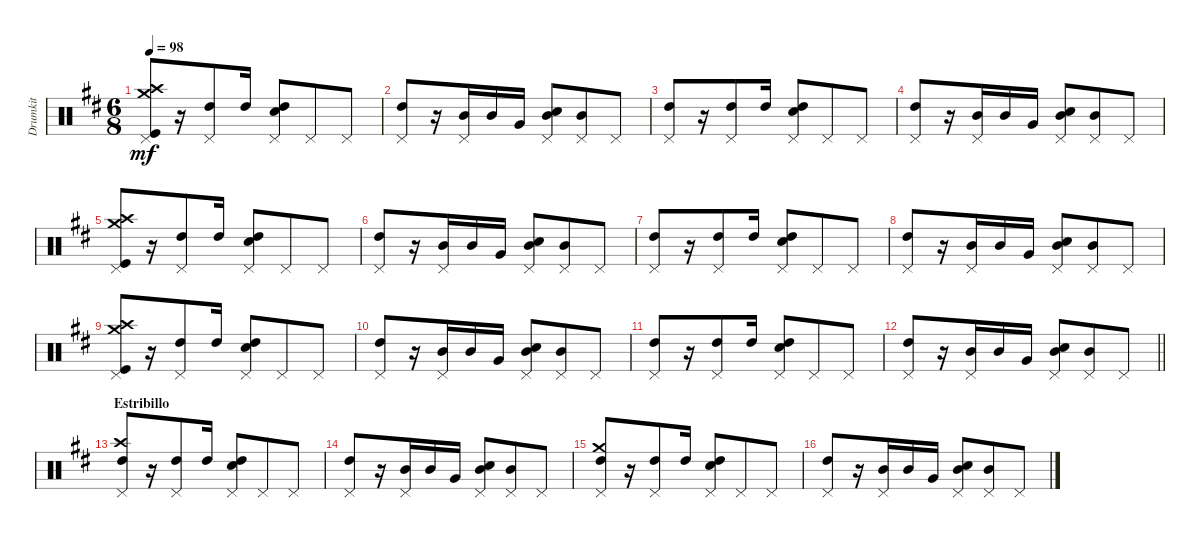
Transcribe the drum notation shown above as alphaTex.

\track ("Drumkit" "Drumkit") {instrument percussion}
\staff {score}
\articulation defaults
\ts (6 8)
\tempo 98
\clef neutral
\ks d
("Pedal Hi-Hat (hit)" "Crash medium (hit)" "Crash high (hit)" "Kick (hit)").8{dy mf} r.16 ("High Tom (hit)" "Pedal Hi-Hat (hit)").8 "High Tom (hit)".16 ("High Tom (hit)" "Snare (hit) 2" "Pedal Hi-Hat (hit)").8 "Pedal Hi-Hat (hit)".8 "Pedal Hi-Hat (hit)".8 |
("High Tom (hit)" "Pedal Hi-Hat (hit)").8 r.16 ("Mid Tom (hit)" "Pedal Hi-Hat (hit)").16 "Mid Tom (hit)".16 "Very Low Tom (hit)".16 ("Mid Tom (hit)" "Snare (hit) 2" "Pedal Hi-Hat (hit)").8 ("Mid Tom (hit)" "Pedal Hi-Hat (hit)").8 "Pedal Hi-Hat (hit)".8 |
("High Tom (hit)" "Pedal Hi-Hat (hit)").8 r.16 ("High Tom (hit)" "Pedal Hi-Hat (hit)").8 "High Tom (hit)".16 ("High Tom (hit)" "Snare (hit) 2" "Pedal Hi-Hat (hit)").8 "Pedal Hi-Hat (hit)".8 "Pedal Hi-Hat (hit)".8 |
("High Tom (hit)" "Pedal Hi-Hat (hit)").8 r.16 ("Mid Tom (hit)" "Pedal Hi-Hat (hit)").16 "Mid Tom (hit)".16 "Very Low Tom (hit)".16 ("Mid Tom (hit)" "Snare (hit) 2" "Pedal Hi-Hat (hit)").8 ("Mid Tom (hit)" "Pedal Hi-Hat (hit)").8 "Pedal Hi-Hat (hit)".8 |
("Pedal Hi-Hat (hit)" "Crash medium (hit)" "Crash high (hit)" "Kick (hit)").8 r.16 ("High Tom (hit)" "Pedal Hi-Hat (hit)").8 "High Tom (hit)".16 ("High Tom (hit)" "Snare (hit) 2" "Pedal Hi-Hat (hit)").8 "Pedal Hi-Hat (hit)".8 "Pedal Hi-Hat (hit)".8 |
("High Tom (hit)" "Pedal Hi-Hat (hit)").8 r.16 ("Mid Tom (hit)" "Pedal Hi-Hat (hit)").16 "Mid Tom (hit)".16 "Very Low Tom (hit)".16 ("Mid Tom (hit)" "Snare (hit) 2" "Pedal Hi-Hat (hit)").8 ("Mid Tom (hit)" "Pedal Hi-Hat (hit)").8 "Pedal Hi-Hat (hit)".8 |
("High Tom (hit)" "Pedal Hi-Hat (hit)").8 r.16 ("High Tom (hit)" "Pedal Hi-Hat (hit)").8 "High Tom (hit)".16 ("High Tom (hit)" "Snare (hit) 2" "Pedal Hi-Hat (hit)").8 "Pedal Hi-Hat (hit)".8 "Pedal Hi-Hat (hit)".8 |
("High Tom (hit)" "Pedal Hi-Hat (hit)").8 r.16 ("Mid Tom (hit)" "Pedal Hi-Hat (hit)").16 "Mid Tom (hit)".16 "Very Low Tom (hit)".16 ("Mid Tom (hit)" "Snare (hit) 2" "Pedal Hi-Hat (hit)").8 ("Mid Tom (hit)" "Pedal Hi-Hat (hit)").8 "Pedal Hi-Hat (hit)".8 |
("Pedal Hi-Hat (hit)" "Crash medium (hit)" "Crash high (hit)" "Kick (hit)").8 r.16 ("High Tom (hit)" "Pedal Hi-Hat (hit)").8 "High Tom (hit)".16 ("High Tom (hit)" "Snare (hit) 2" "Pedal Hi-Hat (hit)").8 "Pedal Hi-Hat (hit)".8 "Pedal Hi-Hat (hit)".8 |
("High Tom (hit)" "Pedal Hi-Hat (hit)").8 r.16 ("Mid Tom (hit)" "Pedal Hi-Hat (hit)").16 "Mid Tom (hit)".16 "Very Low Tom (hit)".16 ("Mid Tom (hit)" "Snare (hit) 2" "Pedal Hi-Hat (hit)").8 ("Mid Tom (hit)" "Pedal Hi-Hat (hit)").8 "Pedal Hi-Hat (hit)".8 |
("High Tom (hit)" "Pedal Hi-Hat (hit)").8 r.16 ("High Tom (hit)" "Pedal Hi-Hat (hit)").8 "High Tom (hit)".16 ("High Tom (hit)" "Snare (hit) 2" "Pedal Hi-Hat (hit)").8 "Pedal Hi-Hat (hit)".8 "Pedal Hi-Hat (hit)".8 |
\barLineRight lightlight
("High Tom (hit)" "Pedal Hi-Hat (hit)").8 r.16 ("Mid Tom (hit)" "Pedal Hi-Hat (hit)").16 "Mid Tom (hit)".16 "Very Low Tom (hit)".16 ("Mid Tom (hit)" "Snare (hit) 2" "Pedal Hi-Hat (hit)").8 ("Mid Tom (hit)" "Pedal Hi-Hat (hit)").8 "Pedal Hi-Hat (hit)".8 |
\section ("" "Estribillo")
("High Tom (hit)" "Pedal Hi-Hat (hit)" "Crash high (hit)").8 r.16 ("High Tom (hit)" "Pedal Hi-Hat (hit)").8 "High Tom (hit)".16 ("High Tom (hit)" "Snare (hit) 2" "Pedal Hi-Hat (hit)").8 "Pedal Hi-Hat (hit)".8 "Pedal Hi-Hat (hit)".8 |
("High Tom (hit)" "Pedal Hi-Hat (hit)").8 r.16 ("Mid Tom (hit)" "Pedal Hi-Hat (hit)").16 "Mid Tom (hit)".16 "Very Low Tom (hit)".16 ("Mid Tom (hit)" "Snare (hit) 2" "Pedal Hi-Hat (hit)").8 ("Mid Tom (hit)" "Pedal Hi-Hat (hit)").8 "Pedal Hi-Hat (hit)".8 |
("High Tom (hit)" "Pedal Hi-Hat (hit)" "Crash medium (hit)").8 r.16 ("High Tom (hit)" "Pedal Hi-Hat (hit)").8 "High Tom (hit)".16 ("High Tom (hit)" "Snare (hit) 2" "Pedal Hi-Hat (hit)").8 "Pedal Hi-Hat (hit)".8 "Pedal Hi-Hat (hit)".8 |
("High Tom (hit)" "Pedal Hi-Hat (hit)").8 r.16 ("Mid Tom (hit)" "Pedal Hi-Hat (hit)").16 "Mid Tom (hit)".16 "Very Low Tom (hit)".16 ("Mid Tom (hit)" "Snare (hit) 2" "Pedal Hi-Hat (hit)").8 ("Mid Tom (hit)" "Pedal Hi-Hat (hit)").8 "Pedal Hi-Hat (hit)".8
